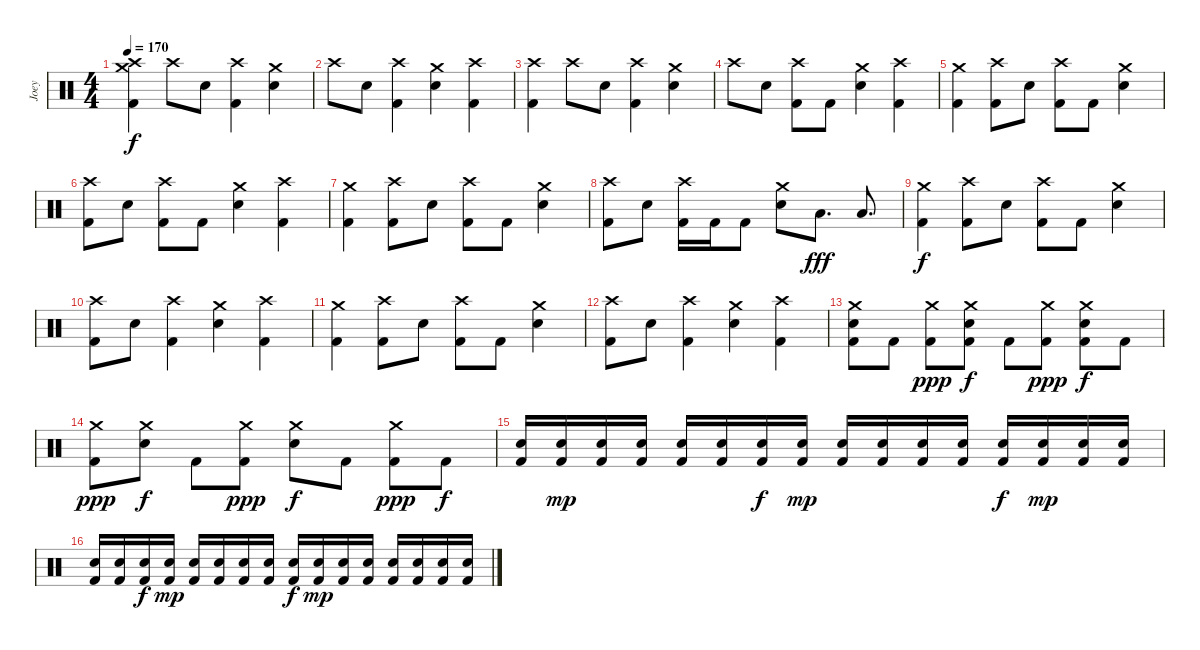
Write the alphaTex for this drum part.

\track ("Joey" "Joey") {instrument percussion}
\staff {score}
\articulation defaults
\ts (4 4)
\tempo 170
\clef neutral
\ks c
("Crash high (hit)" "Crash medium (hit)" "Kick (hit) 2").4{dy f} "Crash high (hit)".8 "Electric Snare (hit)".8 ("Crash high (hit)" "Kick (hit) 2").4 ("Crash medium (hit)" "Electric Snare (hit)").4 |
"Crash high (hit)".8 "Electric Snare (hit)".8 ("Crash high (hit)" "Kick (hit) 2").4 ("Crash medium (hit)" "Electric Snare (hit)").4 ("Crash high (hit)" "Kick (hit) 2").4 |
("Crash high (hit)" "Kick (hit) 2").4 "Crash high (hit)".8 "Electric Snare (hit)".8 ("Crash high (hit)" "Kick (hit) 2").4 ("Crash medium (hit)" "Electric Snare (hit)").4 |
"Crash high (hit)".8 "Electric Snare (hit)".8 ("Crash high (hit)" "Kick (hit) 2").8 "Kick (hit) 2".8 ("Crash medium (hit)" "Electric Snare (hit)").4 ("Crash high (hit)" "Kick (hit) 2").4 |
("Crash medium (hit)" "Kick (hit) 2").4 ("Crash high (hit)" "Kick (hit) 2").8 "Electric Snare (hit)".8 ("Crash high (hit)" "Kick (hit) 2").8 "Kick (hit) 2".8 ("Crash medium (hit)" "Electric Snare (hit)").4 |
("Crash high (hit)" "Kick (hit) 2").8 "Electric Snare (hit)".8 ("Crash high (hit)" "Kick (hit) 2").8 "Kick (hit) 2".8 ("Crash medium (hit)" "Electric Snare (hit)").4 ("Crash high (hit)" "Kick (hit) 2").4 |
("Crash medium (hit)" "Kick (hit) 2").4 ("Crash high (hit)" "Kick (hit) 2").8 "Electric Snare (hit)".8 ("Crash high (hit)" "Kick (hit) 2").8 "Kick (hit) 2".8 ("Crash medium (hit)" "Electric Snare (hit)").4 |
("Crash high (hit)" "Kick (hit) 2").8 "Electric Snare (hit)".8 ("Crash high (hit)" "Kick (hit) 2").16 "Kick (hit) 2".16 "Kick (hit) 2".8 ("Crash medium (hit)" "Electric Snare (hit)").8 "Low Tom (hit)".8{d dy fff} "Low Tom (hit)".8{d} |
("Crash medium (hit)" "Kick (hit) 2").4{dy f} ("Crash high (hit)" "Kick (hit) 2").8 "Electric Snare (hit)".8 ("Crash high (hit)" "Kick (hit) 2").8 "Kick (hit) 2".8 ("Crash medium (hit)" "Electric Snare (hit)").4 |
("Crash high (hit)" "Kick (hit) 2").8 "Electric Snare (hit)".8 ("Crash high (hit)" "Kick (hit) 2").4 ("Crash medium (hit)" "Electric Snare (hit)").4 ("Crash high (hit)" "Kick (hit) 2").4 |
("Crash medium (hit)" "Kick (hit) 2").4 ("Crash high (hit)" "Kick (hit) 2").8 "Electric Snare (hit)".8 ("Crash high (hit)" "Kick (hit) 2").8 "Kick (hit) 2".8 ("Crash medium (hit)" "Electric Snare (hit)").4 |
("Crash high (hit)" "Kick (hit) 2").8 "Electric Snare (hit)".8 ("Crash high (hit)" "Kick (hit) 2").4 ("Crash medium (hit)" "Electric Snare (hit)").4 ("Crash high (hit)" "Kick (hit) 2").4 |
("Crash medium (hit)" "Electric Snare (hit)" "Kick (hit) 2").8 "Kick (hit) 2".8 ("Crash medium (hit)" "Kick (hit) 2").8{dy ppp} ("Crash medium (hit)" "Electric Snare (hit)" "Kick (hit) 2").8{dy f} "Kick (hit) 2".8 ("Crash medium (hit)" "Kick (hit) 2").8{dy ppp} ("Crash medium (hit)" "Electric Snare (hit)" "Kick (hit) 2").8{dy f} "Kick (hit) 2".8 |
("Crash medium (hit)" "Kick (hit) 2").8{dy ppp} ("Crash medium (hit)" "Electric Snare (hit)").8{dy f} "Kick (hit) 2".8 ("Crash medium (hit)" "Kick (hit) 2").8{dy ppp} ("Crash medium (hit)" "Electric Snare (hit)").8{dy f} "Kick (hit) 2".8 ("Crash medium (hit)" "Kick (hit) 2").8{dy ppp} "Kick (hit) 2".8{dy f} |
("Electric Snare (hit)" "Kick (hit) 2").16 ("Electric Snare (hit)" "Kick (hit) 2").16{dy mp} ("Electric Snare (hit)" "Kick (hit) 2").16 ("Electric Snare (hit)" "Kick (hit) 2").16 ("Electric Snare (hit)" "Kick (hit) 2").16 ("Electric Snare (hit)" "Kick (hit) 2").16 ("Electric Snare (hit)" "Kick (hit) 2").16{dy f} ("Electric Snare (hit)" "Kick (hit) 2").16{dy mp} ("Electric Snare (hit)" "Kick (hit) 2").16 ("Electric Snare (hit)" "Kick (hit) 2").16 ("Electric Snare (hit)" "Kick (hit) 2").16 ("Electric Snare (hit)" "Kick (hit) 2").16 ("Electric Snare (hit)" "Kick (hit) 2").16{dy f} ("Electric Snare (hit)" "Kick (hit) 2").16{dy mp} ("Electric Snare (hit)" "Kick (hit) 2").16 ("Electric Snare (hit)" "Kick (hit) 2").16 |
("Electric Snare (hit)" "Kick (hit) 2").16 ("Electric Snare (hit)" "Kick (hit) 2").16 ("Electric Snare (hit)" "Kick (hit) 2").16{dy f} ("Electric Snare (hit)" "Kick (hit) 2").16{dy mp} ("Electric Snare (hit)" "Kick (hit) 2").16 ("Electric Snare (hit)" "Kick (hit) 2").16 ("Electric Snare (hit)" "Kick (hit) 2").16 ("Electric Snare (hit)" "Kick (hit) 2").16 ("Electric Snare (hit)" "Kick (hit) 2").16{dy f} ("Electric Snare (hit)" "Kick (hit) 2").16{dy mp} ("Electric Snare (hit)" "Kick (hit) 2").16 ("Electric Snare (hit)" "Kick (hit) 2").16 ("Electric Snare (hit)" "Kick (hit) 2").16 ("Electric Snare (hit)" "Kick (hit) 2").16 ("Electric Snare (hit)" "Kick (hit) 2").16 ("Electric Snare (hit)" "Kick (hit) 2").16
